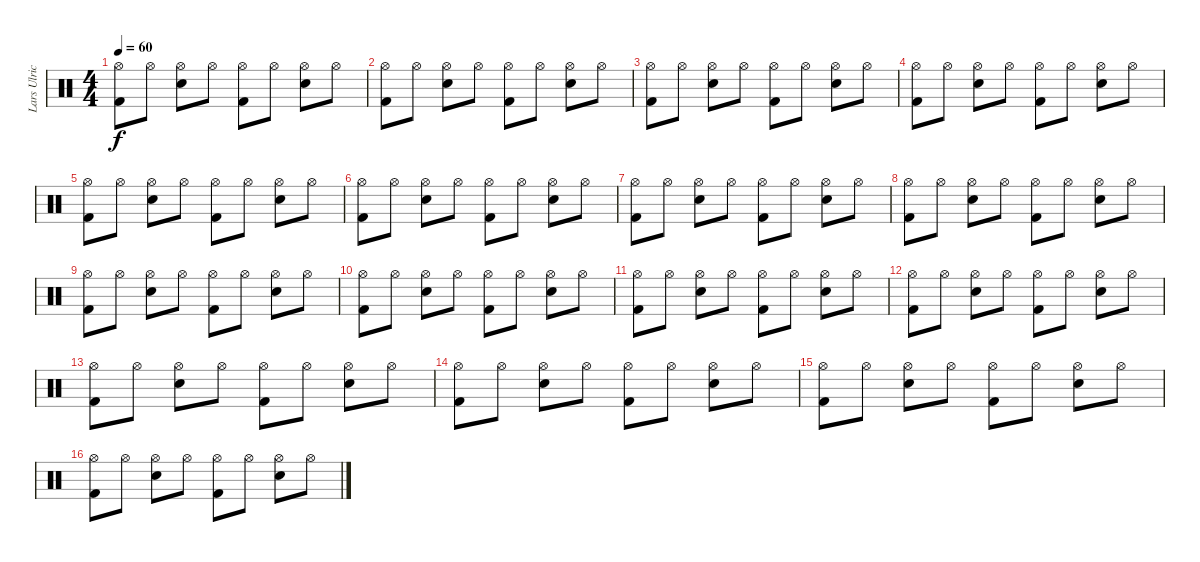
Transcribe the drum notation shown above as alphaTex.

\track ("Lars Ulrich" "Lars Ulric") {instrument percussion}
\staff {score}
\articulation defaults
\ts (4 4)
\tempo 60
\clef neutral
\ks c
("Kick (hit) 2" "Hi-Hat (open)").8{dy f} "Hi-Hat (open)".8 ("Snare (hit) 2" "Hi-Hat (open)").8 "Hi-Hat (open)".8 ("Kick (hit) 2" "Hi-Hat (open)").8 "Hi-Hat (open)".8 ("Snare (hit) 2" "Hi-Hat (open)").8 "Hi-Hat (open)".8 |
("Kick (hit) 2" "Hi-Hat (open)").8 "Hi-Hat (open)".8 ("Snare (hit) 2" "Hi-Hat (open)").8 "Hi-Hat (open)".8 ("Kick (hit) 2" "Hi-Hat (open)").8 "Hi-Hat (open)".8 ("Snare (hit) 2" "Hi-Hat (open)").8 "Hi-Hat (open)".8 |
("Kick (hit) 2" "Hi-Hat (open)").8 "Hi-Hat (open)".8 ("Snare (hit) 2" "Hi-Hat (open)").8 "Hi-Hat (open)".8 ("Kick (hit) 2" "Hi-Hat (open)").8 "Hi-Hat (open)".8 ("Snare (hit) 2" "Hi-Hat (open)").8 "Hi-Hat (open)".8 |
("Kick (hit) 2" "Hi-Hat (open)").8 "Hi-Hat (open)".8 ("Snare (hit) 2" "Hi-Hat (open)").8 "Hi-Hat (open)".8 ("Kick (hit) 2" "Hi-Hat (open)").8 "Hi-Hat (open)".8 ("Snare (hit) 2" "Hi-Hat (open)").8 "Hi-Hat (open)".8 |
("Kick (hit) 2" "Hi-Hat (open)").8 "Hi-Hat (open)".8 ("Snare (hit) 2" "Hi-Hat (open)").8 "Hi-Hat (open)".8 ("Kick (hit) 2" "Hi-Hat (open)").8 "Hi-Hat (open)".8 ("Snare (hit) 2" "Hi-Hat (open)").8 "Hi-Hat (open)".8 |
("Kick (hit) 2" "Hi-Hat (open)").8 "Hi-Hat (open)".8 ("Snare (hit) 2" "Hi-Hat (open)").8 "Hi-Hat (open)".8 ("Kick (hit) 2" "Hi-Hat (open)").8 "Hi-Hat (open)".8 ("Snare (hit) 2" "Hi-Hat (open)").8 "Hi-Hat (open)".8 |
("Kick (hit) 2" "Hi-Hat (open)").8 "Hi-Hat (open)".8 ("Snare (hit) 2" "Hi-Hat (open)").8 "Hi-Hat (open)".8 ("Kick (hit) 2" "Hi-Hat (open)").8 "Hi-Hat (open)".8 ("Snare (hit) 2" "Hi-Hat (open)").8 "Hi-Hat (open)".8 |
("Kick (hit) 2" "Hi-Hat (open)").8 "Hi-Hat (open)".8 ("Snare (hit) 2" "Hi-Hat (open)").8 "Hi-Hat (open)".8 ("Kick (hit) 2" "Hi-Hat (open)").8 "Hi-Hat (open)".8 ("Snare (hit) 2" "Hi-Hat (open)").8 "Hi-Hat (open)".8 |
("Kick (hit) 2" "Hi-Hat (open)").8 "Hi-Hat (open)".8 ("Snare (hit) 2" "Hi-Hat (open)").8 "Hi-Hat (open)".8 ("Kick (hit) 2" "Hi-Hat (open)").8 "Hi-Hat (open)".8 ("Snare (hit) 2" "Hi-Hat (open)").8 "Hi-Hat (open)".8 |
("Kick (hit) 2" "Hi-Hat (open)").8 "Hi-Hat (open)".8 ("Snare (hit) 2" "Hi-Hat (open)").8 "Hi-Hat (open)".8 ("Kick (hit) 2" "Hi-Hat (open)").8 "Hi-Hat (open)".8 ("Snare (hit) 2" "Hi-Hat (open)").8 "Hi-Hat (open)".8 |
("Kick (hit) 2" "Hi-Hat (open)").8 "Hi-Hat (open)".8 ("Snare (hit) 2" "Hi-Hat (open)").8 "Hi-Hat (open)".8 ("Kick (hit) 2" "Hi-Hat (open)").8 "Hi-Hat (open)".8 ("Snare (hit) 2" "Hi-Hat (open)").8 "Hi-Hat (open)".8 |
("Kick (hit) 2" "Hi-Hat (open)").8 "Hi-Hat (open)".8 ("Snare (hit) 2" "Hi-Hat (open)").8 "Hi-Hat (open)".8 ("Kick (hit) 2" "Hi-Hat (open)").8 "Hi-Hat (open)".8 ("Snare (hit) 2" "Hi-Hat (open)").8 "Hi-Hat (open)".8 |
("Kick (hit) 2" "Hi-Hat (open)").8 "Hi-Hat (open)".8 ("Snare (hit) 2" "Hi-Hat (open)").8 "Hi-Hat (open)".8 ("Kick (hit) 2" "Hi-Hat (open)").8 "Hi-Hat (open)".8 ("Snare (hit) 2" "Hi-Hat (open)").8 "Hi-Hat (open)".8 |
("Kick (hit) 2" "Hi-Hat (open)").8 "Hi-Hat (open)".8 ("Snare (hit) 2" "Hi-Hat (open)").8 "Hi-Hat (open)".8 ("Kick (hit) 2" "Hi-Hat (open)").8 "Hi-Hat (open)".8 ("Snare (hit) 2" "Hi-Hat (open)").8 "Hi-Hat (open)".8 |
("Kick (hit) 2" "Hi-Hat (open)").8 "Hi-Hat (open)".8 ("Snare (hit) 2" "Hi-Hat (open)").8 "Hi-Hat (open)".8 ("Kick (hit) 2" "Hi-Hat (open)").8 "Hi-Hat (open)".8 ("Snare (hit) 2" "Hi-Hat (open)").8 "Hi-Hat (open)".8 |
("Kick (hit) 2" "Hi-Hat (open)").8 "Hi-Hat (open)".8 ("Snare (hit) 2" "Hi-Hat (open)").8 "Hi-Hat (open)".8 ("Kick (hit) 2" "Hi-Hat (open)").8 "Hi-Hat (open)".8 ("Snare (hit) 2" "Hi-Hat (open)").8 "Hi-Hat (open)".8
